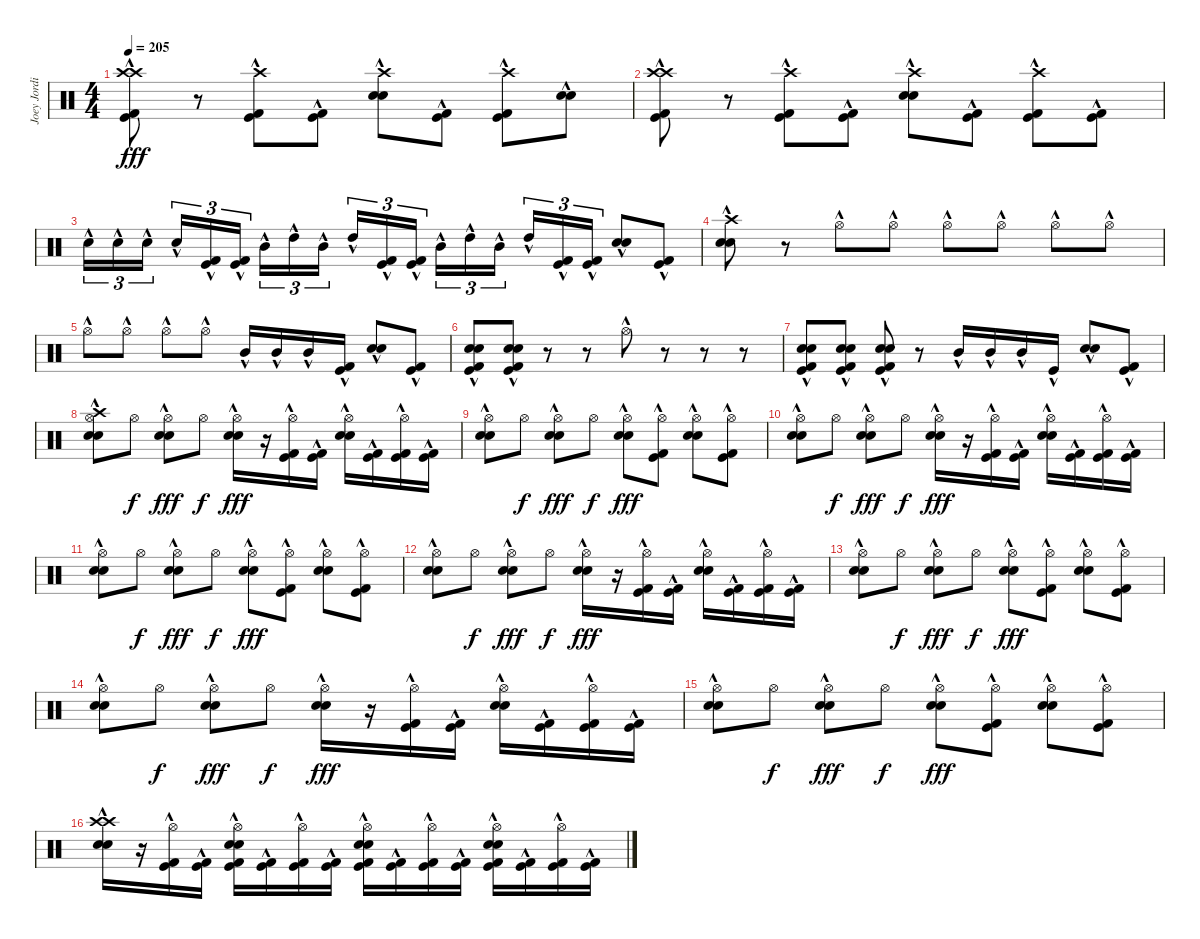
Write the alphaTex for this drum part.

\track ("Joey Jordison" "Joey Jordi") {instrument percussion}
\staff {score}
\articulation defaults
\ts (4 4)
\tempo 205
\clef neutral
\ks c
("Crash high (hit)"{hac} "Crash high (hit)"{hac} "Kick (hit)"{hac} "Kick (hit) 2"{hac}).8{dy fff} r.8 ("Crash high (hit)"{hac} "Kick (hit)"{hac} "Kick (hit) 2"{hac}).8 ("Kick (hit)"{hac} "Kick (hit) 2"{hac}).8 ("Crash high (hit)"{hac} "Electric Snare (hit)"{hac} "Electric Snare (hit)"{hac}).8 ("Kick (hit)"{hac} "Kick (hit) 2"{hac}).8 ("Crash high (hit)"{hac} "Kick (hit)"{hac} "Kick (hit) 2"{hac}).8 ("Electric Snare (hit)"{hac} "Electric Snare (hit)"{hac}).8 |
("Crash high (hit)"{hac} "Crash high (hit)"{hac} "Kick (hit)"{hac} "Kick (hit) 2"{hac}).8 r.8 ("Crash high (hit)"{hac} "Kick (hit)"{hac} "Kick (hit) 2"{hac}).8 ("Kick (hit)"{hac} "Kick (hit) 2"{hac}).8 ("Crash high (hit)"{hac} "Electric Snare (hit)"{hac} "Electric Snare (hit)"{hac}).8 ("Kick (hit)"{hac} "Kick (hit) 2"{hac}).8 ("Crash high (hit)"{hac} "Kick (hit)"{hac} "Kick (hit) 2"{hac}).8 ("Kick (hit)"{hac} "Kick (hit) 2"{hac}).8 |
"Electric Snare (hit)"{hac}.16{tu (3 2)} "Electric Snare (hit)"{hac}.16{tu (3 2)} "Electric Snare (hit)"{hac}.16{tu (3 2) beam splitsecondary} "Electric Snare (hit)"{hac}.16{tu (3 2)} ("Kick (hit)"{hac} "Kick (hit) 2"{hac}).16{tu (3 2)} ("Kick (hit)"{hac} "Kick (hit) 2"{hac}).16{tu (3 2)} "Mid Tom (hit)"{hac}.16{tu (3 2)} "High Tom (hit)"{hac}.16{tu (3 2)} "Mid Tom (hit)"{hac}.16{tu (3 2) beam splitsecondary} "High Tom (hit)"{hac}.16{tu (3 2)} ("Kick (hit)"{hac} "Kick (hit) 2"{hac}).16{tu (3 2)} ("Kick (hit)"{hac} "Kick (hit) 2"{hac}).16{tu (3 2)} "Mid Tom (hit)"{hac}.16{tu (3 2)} "High Tom (hit)"{hac}.16{tu (3 2)} "Mid Tom (hit)"{hac}.16{tu (3 2) beam splitsecondary} "High Tom (hit)"{hac}.16{tu (3 2)} ("Kick (hit)"{hac} "Kick (hit) 2"{hac}).16{tu (3 2)} ("Kick (hit)"{hac} "Kick (hit) 2"{hac}).16{tu (3 2)} ("Electric Snare (hit)"{hac} "Electric Snare (hit)"{hac}).8 ("Kick (hit) 2"{hac} "Kick (hit)"{hac}).8 |
("Crash high (hit)"{hac} "Electric Snare (hit)"{hac} "Electric Snare (hit)"{hac}).8 r.8 "Hi-Hat (open)"{hac}.8 "Hi-Hat (open)"{hac}.8 "Hi-Hat (open)"{hac}.8 "Hi-Hat (open)"{hac}.8 "Hi-Hat (open)"{hac}.8 "Hi-Hat (open)"{hac}.8 |
"Hi-Hat (open)"{hac}.8 "Hi-Hat (open)"{hac}.8 "Hi-Hat (open)"{hac}.8 "Hi-Hat (open)"{hac}.8 "Mid Tom (hit)"{hac}.16 "Mid Tom (hit)"{hac}.16 "Mid Tom (hit)"{hac}.16 ("Kick (hit)"{hac} "Kick (hit) 2"{hac}).16 ("Electric Snare (hit)"{hac} "Electric Snare (hit)"{hac}).8 ("Kick (hit)"{hac} "Kick (hit) 2"{hac}).8 |
("Electric Snare (hit)"{hac} "Electric Snare (hit)"{hac} "Kick (hit)"{hac} "Kick (hit) 2"{hac}).8 ("Electric Snare (hit)"{hac} "Electric Snare (hit)"{hac} "Kick (hit)"{hac} "Kick (hit) 2"{hac}).8 r.8 r.8 "Hi-Hat (open)"{hac}.8 r.8 r.8 r.8 |
("Electric Snare (hit)"{hac} "Electric Snare (hit)"{hac} "Kick (hit)"{hac} "Kick (hit) 2"{hac}).8 ("Electric Snare (hit)"{hac} "Electric Snare (hit)"{hac} "Kick (hit)"{hac} "Kick (hit) 2"{hac}).8 ("Electric Snare (hit)"{hac} "Electric Snare (hit)"{hac} "Kick (hit)"{hac} "Kick (hit) 2"{hac}).8 r.8 "Mid Tom (hit)"{hac}.16 "Mid Tom (hit)"{hac}.16 "Mid Tom (hit)"{hac}.16 "Kick (hit)"{hac}.16 ("Electric Snare (hit)"{hac} "Electric Snare (hit)"{hac}).8 ("Kick (hit)"{hac} "Kick (hit) 2"{hac}).8 |
("Crash high (hit)"{hac} "Hi-Hat (open)"{hac} "Electric Snare (hit)"{hac} "Electric Snare (hit)"{hac}).8 "Hi-Hat (open)".8{dy f} ("Hi-Hat (open)"{hac} "Electric Snare (hit)"{hac} "Electric Snare (hit)"{hac}).8{dy fff} "Hi-Hat (open)".8{dy f} ("Hi-Hat (open)"{hac} "Electric Snare (hit)"{hac} "Electric Snare (hit)"{hac}).16{dy fff} r.16 ("Hi-Hat (open)" "Kick (hit)"{hac} "Kick (hit) 2"{hac}).16 ("Kick (hit)"{hac} "Kick (hit) 2"{hac}).16 ("Hi-Hat (open)"{hac} "Electric Snare (hit)"{hac} "Electric Snare (hit)"{hac}).16 ("Kick (hit)"{hac} "Kick (hit) 2"{hac}).16 ("Hi-Hat (open)" "Kick (hit)"{hac} "Kick (hit) 2"{hac}).16 ("Kick (hit)"{hac} "Kick (hit) 2"{hac}).16 |
("Hi-Hat (open)"{hac} "Electric Snare (hit)"{hac} "Electric Snare (hit)"{hac}).8 "Hi-Hat (open)".8{dy f} ("Hi-Hat (open)"{hac} "Electric Snare (hit)"{hac} "Electric Snare (hit)"{hac}).8{dy fff} "Hi-Hat (open)".8{dy f} ("Hi-Hat (open)"{hac} "Electric Snare (hit)"{hac} "Electric Snare (hit)"{hac}).8{dy fff} ("Hi-Hat (open)" "Kick (hit)"{hac} "Kick (hit) 2"{hac}).8 ("Hi-Hat (open)"{hac} "Electric Snare (hit)"{hac} "Electric Snare (hit)"{hac}).8 ("Hi-Hat (open)" "Kick (hit)"{hac} "Kick (hit) 2"{hac}).8 |
("Hi-Hat (open)"{hac} "Electric Snare (hit)"{hac} "Electric Snare (hit)"{hac}).8 "Hi-Hat (open)".8{dy f} ("Hi-Hat (open)"{hac} "Electric Snare (hit)"{hac} "Electric Snare (hit)"{hac}).8{dy fff} "Hi-Hat (open)".8{dy f} ("Hi-Hat (open)"{hac} "Electric Snare (hit)"{hac} "Electric Snare (hit)"{hac}).16{dy fff} r.16 ("Hi-Hat (open)" "Kick (hit)"{hac} "Kick (hit) 2"{hac}).16 ("Kick (hit)"{hac} "Kick (hit) 2"{hac}).16 ("Hi-Hat (open)"{hac} "Electric Snare (hit)"{hac} "Electric Snare (hit)"{hac}).16 ("Kick (hit)"{hac} "Kick (hit) 2"{hac}).16 ("Hi-Hat (open)" "Kick (hit)"{hac} "Kick (hit) 2"{hac}).16 ("Kick (hit)"{hac} "Kick (hit) 2"{hac}).16 |
("Hi-Hat (open)"{hac} "Electric Snare (hit)"{hac} "Electric Snare (hit)"{hac}).8 "Hi-Hat (open)".8{dy f} ("Hi-Hat (open)"{hac} "Electric Snare (hit)"{hac} "Electric Snare (hit)"{hac}).8{dy fff} "Hi-Hat (open)".8{dy f} ("Hi-Hat (open)"{hac} "Electric Snare (hit)"{hac} "Electric Snare (hit)"{hac}).8{dy fff} ("Hi-Hat (open)" "Kick (hit)"{hac} "Kick (hit) 2"{hac}).8 ("Hi-Hat (open)"{hac} "Electric Snare (hit)"{hac} "Electric Snare (hit)"{hac}).8 ("Hi-Hat (open)" "Kick (hit)"{hac} "Kick (hit) 2"{hac}).8 |
("Hi-Hat (open)"{hac} "Electric Snare (hit)"{hac} "Electric Snare (hit)"{hac}).8 "Hi-Hat (open)".8{dy f} ("Hi-Hat (open)"{hac} "Electric Snare (hit)"{hac} "Electric Snare (hit)"{hac}).8{dy fff} "Hi-Hat (open)".8{dy f} ("Hi-Hat (open)"{hac} "Electric Snare (hit)"{hac} "Electric Snare (hit)"{hac}).16{dy fff} r.16 ("Hi-Hat (open)" "Kick (hit)"{hac} "Kick (hit) 2"{hac}).16 ("Kick (hit)"{hac} "Kick (hit) 2"{hac}).16 ("Hi-Hat (open)"{hac} "Electric Snare (hit)"{hac} "Electric Snare (hit)"{hac}).16 ("Kick (hit)"{hac} "Kick (hit) 2"{hac}).16 ("Hi-Hat (open)" "Kick (hit)"{hac} "Kick (hit) 2"{hac}).16 ("Kick (hit)"{hac} "Kick (hit) 2"{hac}).16 |
("Hi-Hat (open)"{hac} "Electric Snare (hit)"{hac} "Electric Snare (hit)"{hac}).8 "Hi-Hat (open)".8{dy f} ("Hi-Hat (open)"{hac} "Electric Snare (hit)"{hac} "Electric Snare (hit)"{hac}).8{dy fff} "Hi-Hat (open)".8{dy f} ("Hi-Hat (open)"{hac} "Electric Snare (hit)"{hac} "Electric Snare (hit)"{hac}).8{dy fff} ("Hi-Hat (open)" "Kick (hit)"{hac} "Kick (hit) 2"{hac}).8 ("Hi-Hat (open)"{hac} "Electric Snare (hit)"{hac} "Electric Snare (hit)"{hac}).8 ("Hi-Hat (open)" "Kick (hit)"{hac} "Kick (hit) 2"{hac}).8 |
("Hi-Hat (open)"{hac} "Electric Snare (hit)"{hac} "Electric Snare (hit)"{hac}).8 "Hi-Hat (open)".8{dy f} ("Hi-Hat (open)"{hac} "Electric Snare (hit)"{hac} "Electric Snare (hit)"{hac}).8{dy fff} "Hi-Hat (open)".8{dy f} ("Hi-Hat (open)"{hac} "Electric Snare (hit)"{hac} "Electric Snare (hit)"{hac}).16{dy fff} r.16 ("Hi-Hat (open)" "Kick (hit)"{hac} "Kick (hit) 2"{hac}).16 ("Kick (hit)"{hac} "Kick (hit) 2"{hac}).16 ("Hi-Hat (open)"{hac} "Electric Snare (hit)"{hac} "Electric Snare (hit)"{hac}).16 ("Kick (hit)"{hac} "Kick (hit) 2"{hac}).16 ("Hi-Hat (open)" "Kick (hit)"{hac} "Kick (hit) 2"{hac}).16 ("Kick (hit)"{hac} "Kick (hit) 2"{hac}).16 |
("Hi-Hat (open)"{hac} "Electric Snare (hit)"{hac} "Electric Snare (hit)"{hac}).8 "Hi-Hat (open)".8{dy f} ("Hi-Hat (open)"{hac} "Electric Snare (hit)"{hac} "Electric Snare (hit)"{hac}).8{dy fff} "Hi-Hat (open)".8{dy f} ("Hi-Hat (open)"{hac} "Electric Snare (hit)"{hac} "Electric Snare (hit)"{hac}).8{dy fff} ("Hi-Hat (open)" "Kick (hit)"{hac} "Kick (hit) 2"{hac}).8 ("Hi-Hat (open)"{hac} "Electric Snare (hit)"{hac} "Electric Snare (hit)"{hac}).8 ("Hi-Hat (open)" "Kick (hit)"{hac} "Kick (hit) 2"{hac}).8 |
("Crash high (hit)"{hac} "Crash high (hit)"{hac} "Electric Snare (hit)"{hac} "Electric Snare (hit)"{hac}).16 r.16 ("Hi-Hat (open)" "Kick (hit)"{hac} "Kick (hit) 2"{hac}).16 ("Kick (hit)"{hac} "Kick (hit) 2"{hac}).16 ("Hi-Hat (open)"{hac} "Electric Snare (hit)"{hac} "Electric Snare (hit)"{hac} "Kick (hit)"{hac} "Kick (hit) 2"{hac}).16 ("Kick (hit)"{hac} "Kick (hit) 2"{hac}).16 ("Hi-Hat (open)" "Kick (hit)"{hac} "Kick (hit) 2"{hac}).16 ("Kick (hit)"{hac} "Kick (hit) 2"{hac}).16 ("Hi-Hat (open)"{hac} "Electric Snare (hit)"{hac} "Electric Snare (hit)"{hac} "Kick (hit)"{hac} "Kick (hit) 2"{hac}).16 ("Kick (hit)"{hac} "Kick (hit) 2"{hac}).16 ("Hi-Hat (open)" "Kick (hit)"{hac} "Kick (hit) 2"{hac}).16 ("Kick (hit)"{hac} "Kick (hit) 2"{hac}).16 ("Hi-Hat (open)"{hac} "Electric Snare (hit)"{hac} "Electric Snare (hit)"{hac} "Kick (hit)"{hac} "Kick (hit) 2"{hac}).16 ("Kick (hit)"{hac} "Kick (hit) 2"{hac}).16 ("Hi-Hat (open)" "Kick (hit)"{hac} "Kick (hit) 2"{hac}).16 ("Kick (hit)"{hac} "Kick (hit) 2"{hac}).16
